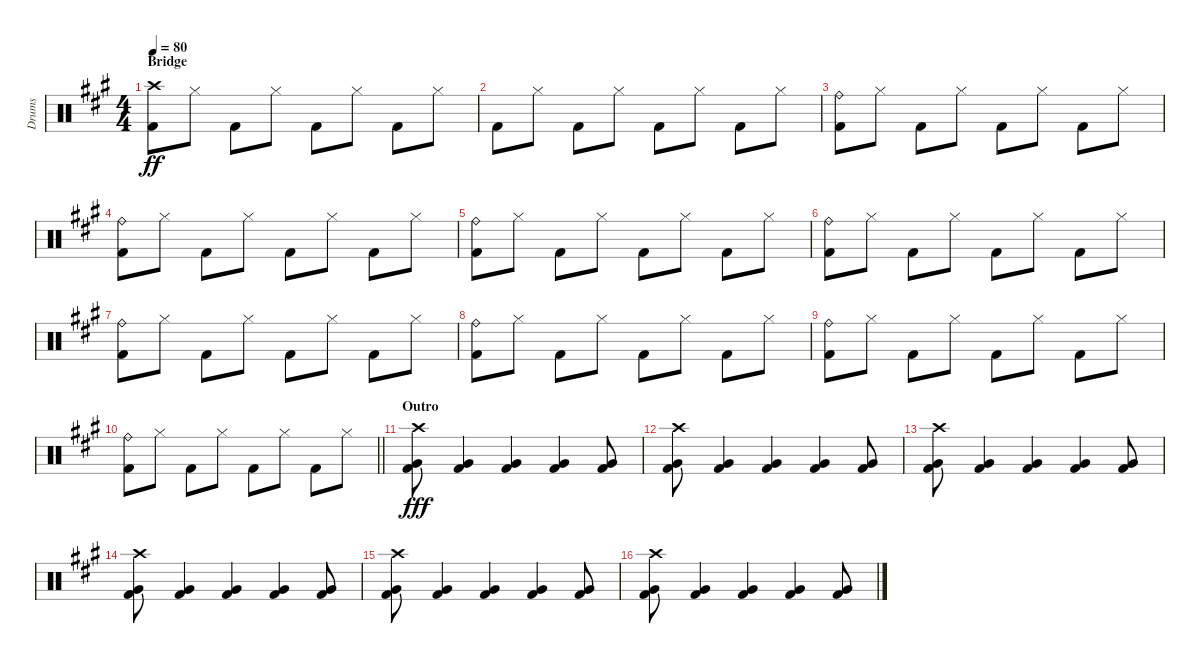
\track ("Drums" "Drums") {instrument percussion}
\staff {score}
\articulation defaults
\ts (4 4)
\section ("" "Bridge")
\tempo 80
\clef neutral
\ks f#minor
("Crash high (hit)" "Kick (hit) 2").8{dy ff} "Hi-Hat (closed)".8 "Kick (hit) 2".8 "Hi-Hat (closed)".8 "Kick (hit) 2".8 "Hi-Hat (closed)".8 "Kick (hit) 2".8 "Hi-Hat (closed)".8 |
"Kick (hit) 2".8 "Hi-Hat (closed)".8 "Kick (hit) 2".8 "Hi-Hat (closed)".8 "Kick (hit) 2".8 "Hi-Hat (closed)".8 "Kick (hit) 2".8 "Hi-Hat (closed)".8 |
("Ride (bell)" "Kick (hit) 2").8 "Hi-Hat (closed)".8 "Kick (hit) 2".8 "Hi-Hat (closed)".8 "Kick (hit) 2".8 "Hi-Hat (closed)".8 "Kick (hit) 2".8 "Hi-Hat (closed)".8 |
("Ride (bell)" "Kick (hit) 2").8 "Hi-Hat (closed)".8 "Kick (hit) 2".8 "Hi-Hat (closed)".8 "Kick (hit) 2".8 "Hi-Hat (closed)".8 "Kick (hit) 2".8 "Hi-Hat (closed)".8 |
("Ride (bell)" "Kick (hit) 2").8 "Hi-Hat (closed)".8 "Kick (hit) 2".8 "Hi-Hat (closed)".8 "Kick (hit) 2".8 "Hi-Hat (closed)".8 "Kick (hit) 2".8 "Hi-Hat (closed)".8 |
("Ride (bell)" "Kick (hit) 2").8 "Hi-Hat (closed)".8 "Kick (hit) 2".8 "Hi-Hat (closed)".8 "Kick (hit) 2".8 "Hi-Hat (closed)".8 "Kick (hit) 2".8 "Hi-Hat (closed)".8 |
("Ride (bell)" "Kick (hit) 2").8 "Hi-Hat (closed)".8 "Kick (hit) 2".8 "Hi-Hat (closed)".8 "Kick (hit) 2".8 "Hi-Hat (closed)".8 "Kick (hit) 2".8 "Hi-Hat (closed)".8 |
("Ride (bell)" "Kick (hit) 2").8 "Hi-Hat (closed)".8 "Kick (hit) 2".8 "Hi-Hat (closed)".8 "Kick (hit) 2".8 "Hi-Hat (closed)".8 "Kick (hit) 2".8 "Hi-Hat (closed)".8 |
("Ride (bell)" "Kick (hit) 2").8 "Hi-Hat (closed)".8 "Kick (hit) 2".8 "Hi-Hat (closed)".8 "Kick (hit) 2".8 "Hi-Hat (closed)".8 "Kick (hit) 2".8 "Hi-Hat (closed)".8 |
\barLineRight lightlight
("Ride (bell)" "Kick (hit) 2").8 "Hi-Hat (closed)".8 "Kick (hit) 2".8 "Hi-Hat (closed)".8 "Kick (hit) 2".8 "Hi-Hat (closed)".8 "Kick (hit) 2".8 "Hi-Hat (closed)".8 |
\section ("" "Outro")
("Crash high (hit)" "Very Low Tom (hit)" "Kick (hit) 2").8{dy fff} ("Very Low Tom (hit)" "Kick (hit) 2").4 ("Very Low Tom (hit)" "Kick (hit) 2").4 ("Very Low Tom (hit)" "Kick (hit) 2").4 ("Very Low Tom (hit)" "Kick (hit) 2").8 |
("Crash high (hit)" "Very Low Tom (hit)" "Kick (hit) 2").8 ("Very Low Tom (hit)" "Kick (hit) 2").4 ("Very Low Tom (hit)" "Kick (hit) 2").4 ("Very Low Tom (hit)" "Kick (hit) 2").4 ("Very Low Tom (hit)" "Kick (hit) 2").8 |
("Crash high (hit)" "Very Low Tom (hit)" "Kick (hit) 2").8 ("Very Low Tom (hit)" "Kick (hit) 2").4 ("Very Low Tom (hit)" "Kick (hit) 2").4 ("Very Low Tom (hit)" "Kick (hit) 2").4 ("Very Low Tom (hit)" "Kick (hit) 2").8 |
("Crash high (hit)" "Very Low Tom (hit)" "Kick (hit) 2").8 ("Very Low Tom (hit)" "Kick (hit) 2").4 ("Very Low Tom (hit)" "Kick (hit) 2").4 ("Very Low Tom (hit)" "Kick (hit) 2").4 ("Very Low Tom (hit)" "Kick (hit) 2").8 |
("Crash high (hit)" "Very Low Tom (hit)" "Kick (hit) 2").8 ("Very Low Tom (hit)" "Kick (hit) 2").4 ("Very Low Tom (hit)" "Kick (hit) 2").4 ("Very Low Tom (hit)" "Kick (hit) 2").4 ("Very Low Tom (hit)" "Kick (hit) 2").8 |
("Crash high (hit)" "Very Low Tom (hit)" "Kick (hit) 2").8 ("Very Low Tom (hit)" "Kick (hit) 2").4 ("Very Low Tom (hit)" "Kick (hit) 2").4 ("Very Low Tom (hit)" "Kick (hit) 2").4 ("Very Low Tom (hit)" "Kick (hit) 2").8
